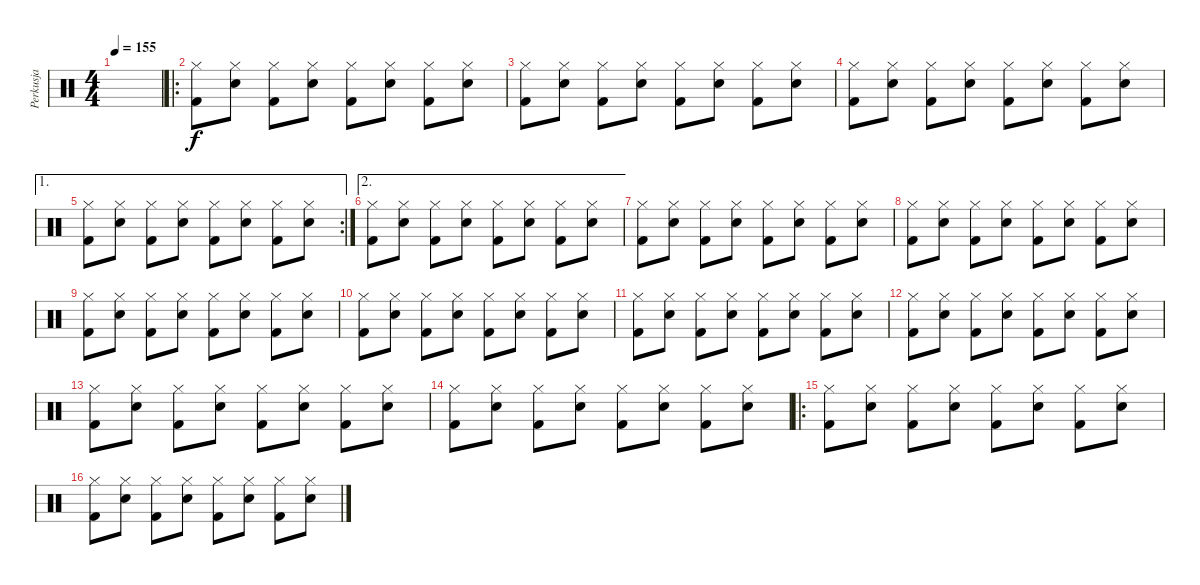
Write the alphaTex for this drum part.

\track ("Perkusja" "Perkusja") {instrument percussion}
\staff {score}
\articulation defaults
\ts (4 4)
\tempo 155
\clef neutral
\ks c
|
\ro
("Kick (hit) 2" "Hi-Hat (closed)").8 ("Snare (hit) 2" "Hi-Hat (closed)").8 ("Kick (hit) 2" "Hi-Hat (closed)").8 ("Snare (hit) 2" "Hi-Hat (closed)").8 ("Kick (hit) 2" "Hi-Hat (closed)").8 ("Snare (hit) 2" "Hi-Hat (closed)").8 ("Kick (hit) 2" "Hi-Hat (closed)").8 ("Snare (hit) 2" "Hi-Hat (closed)").8 |
("Kick (hit) 2" "Hi-Hat (closed)").8 ("Snare (hit) 2" "Hi-Hat (closed)").8 ("Kick (hit) 2" "Hi-Hat (closed)").8 ("Snare (hit) 2" "Hi-Hat (closed)").8 ("Kick (hit) 2" "Hi-Hat (closed)").8 ("Snare (hit) 2" "Hi-Hat (closed)").8 ("Kick (hit) 2" "Hi-Hat (closed)").8 ("Snare (hit) 2" "Hi-Hat (closed)").8 |
("Kick (hit) 2" "Hi-Hat (closed)").8 ("Snare (hit) 2" "Hi-Hat (closed)").8 ("Kick (hit) 2" "Hi-Hat (closed)").8 ("Snare (hit) 2" "Hi-Hat (closed)").8 ("Kick (hit) 2" "Hi-Hat (closed)").8 ("Snare (hit) 2" "Hi-Hat (closed)").8 ("Kick (hit) 2" "Hi-Hat (closed)").8 ("Snare (hit) 2" "Hi-Hat (closed)").8 |
\ae 1
\rc 2
("Kick (hit) 2" "Hi-Hat (closed)").8 ("Snare (hit) 2" "Hi-Hat (closed)").8 ("Kick (hit) 2" "Hi-Hat (closed)").8 ("Snare (hit) 2" "Hi-Hat (closed)").8 ("Kick (hit) 2" "Hi-Hat (closed)").8 ("Snare (hit) 2" "Hi-Hat (closed)").8 ("Kick (hit) 2" "Hi-Hat (closed)").8 ("Snare (hit) 2" "Hi-Hat (closed)").8 |
\ae 2
("Kick (hit) 2" "Hi-Hat (closed)").8 ("Snare (hit) 2" "Hi-Hat (closed)").8 ("Kick (hit) 2" "Hi-Hat (closed)").8 ("Snare (hit) 2" "Hi-Hat (closed)").8 ("Kick (hit) 2" "Hi-Hat (closed)").8 ("Snare (hit) 2" "Hi-Hat (closed)").8 ("Kick (hit) 2" "Hi-Hat (closed)").8 ("Snare (hit) 2" "Hi-Hat (closed)").8 |
("Kick (hit) 2" "Hi-Hat (closed)").8 ("Snare (hit) 2" "Hi-Hat (closed)").8 ("Kick (hit) 2" "Hi-Hat (closed)").8 ("Snare (hit) 2" "Hi-Hat (closed)").8 ("Kick (hit) 2" "Hi-Hat (closed)").8 ("Snare (hit) 2" "Hi-Hat (closed)").8 ("Kick (hit) 2" "Hi-Hat (closed)").8 ("Snare (hit) 2" "Hi-Hat (closed)").8 |
("Kick (hit) 2" "Hi-Hat (closed)").8 ("Snare (hit) 2" "Hi-Hat (closed)").8 ("Kick (hit) 2" "Hi-Hat (closed)").8 ("Snare (hit) 2" "Hi-Hat (closed)").8 ("Kick (hit) 2" "Hi-Hat (closed)").8 ("Snare (hit) 2" "Hi-Hat (closed)").8 ("Kick (hit) 2" "Hi-Hat (closed)").8 ("Snare (hit) 2" "Hi-Hat (closed)").8 |
("Kick (hit) 2" "Hi-Hat (closed)").8 ("Snare (hit) 2" "Hi-Hat (closed)").8 ("Kick (hit) 2" "Hi-Hat (closed)").8 ("Snare (hit) 2" "Hi-Hat (closed)").8 ("Kick (hit) 2" "Hi-Hat (closed)").8 ("Snare (hit) 2" "Hi-Hat (closed)").8 ("Kick (hit) 2" "Hi-Hat (closed)").8 ("Snare (hit) 2" "Hi-Hat (closed)").8 |
("Kick (hit) 2" "Hi-Hat (closed)").8 ("Snare (hit) 2" "Hi-Hat (closed)").8 ("Kick (hit) 2" "Hi-Hat (closed)").8 ("Snare (hit) 2" "Hi-Hat (closed)").8 ("Kick (hit) 2" "Hi-Hat (closed)").8 ("Snare (hit) 2" "Hi-Hat (closed)").8 ("Kick (hit) 2" "Hi-Hat (closed)").8 ("Snare (hit) 2" "Hi-Hat (closed)").8 |
("Kick (hit) 2" "Hi-Hat (closed)").8 ("Snare (hit) 2" "Hi-Hat (closed)").8 ("Kick (hit) 2" "Hi-Hat (closed)").8 ("Snare (hit) 2" "Hi-Hat (closed)").8 ("Kick (hit) 2" "Hi-Hat (closed)").8 ("Snare (hit) 2" "Hi-Hat (closed)").8 ("Kick (hit) 2" "Hi-Hat (closed)").8 ("Snare (hit) 2" "Hi-Hat (closed)").8 |
("Kick (hit) 2" "Hi-Hat (closed)").8 ("Snare (hit) 2" "Hi-Hat (closed)").8 ("Kick (hit) 2" "Hi-Hat (closed)").8 ("Snare (hit) 2" "Hi-Hat (closed)").8 ("Kick (hit) 2" "Hi-Hat (closed)").8 ("Snare (hit) 2" "Hi-Hat (closed)").8 ("Kick (hit) 2" "Hi-Hat (closed)").8 ("Snare (hit) 2" "Hi-Hat (closed)").8 |
("Kick (hit) 2" "Hi-Hat (closed)").8 ("Snare (hit) 2" "Hi-Hat (closed)").8 ("Kick (hit) 2" "Hi-Hat (closed)").8 ("Snare (hit) 2" "Hi-Hat (closed)").8 ("Kick (hit) 2" "Hi-Hat (closed)").8 ("Snare (hit) 2" "Hi-Hat (closed)").8 ("Kick (hit) 2" "Hi-Hat (closed)").8 ("Snare (hit) 2" "Hi-Hat (closed)").8 |
("Kick (hit) 2" "Hi-Hat (closed)").8 ("Snare (hit) 2" "Hi-Hat (closed)").8 ("Kick (hit) 2" "Hi-Hat (closed)").8 ("Snare (hit) 2" "Hi-Hat (closed)").8 ("Kick (hit) 2" "Hi-Hat (closed)").8 ("Snare (hit) 2" "Hi-Hat (closed)").8 ("Kick (hit) 2" "Hi-Hat (closed)").8 ("Snare (hit) 2" "Hi-Hat (closed)").8 |
\ro
("Kick (hit) 2" "Hi-Hat (closed)").8 ("Snare (hit) 2" "Hi-Hat (closed)").8 ("Kick (hit) 2" "Hi-Hat (closed)").8 ("Snare (hit) 2" "Hi-Hat (closed)").8 ("Kick (hit) 2" "Hi-Hat (closed)").8 ("Snare (hit) 2" "Hi-Hat (closed)").8 ("Kick (hit) 2" "Hi-Hat (closed)").8 ("Snare (hit) 2" "Hi-Hat (closed)").8 |
("Kick (hit) 2" "Hi-Hat (closed)").8 ("Snare (hit) 2" "Hi-Hat (closed)").8 ("Kick (hit) 2" "Hi-Hat (closed)").8 ("Snare (hit) 2" "Hi-Hat (closed)").8 ("Kick (hit) 2" "Hi-Hat (closed)").8 ("Snare (hit) 2" "Hi-Hat (closed)").8 ("Kick (hit) 2" "Hi-Hat (closed)").8 ("Snare (hit) 2" "Hi-Hat (closed)").8
